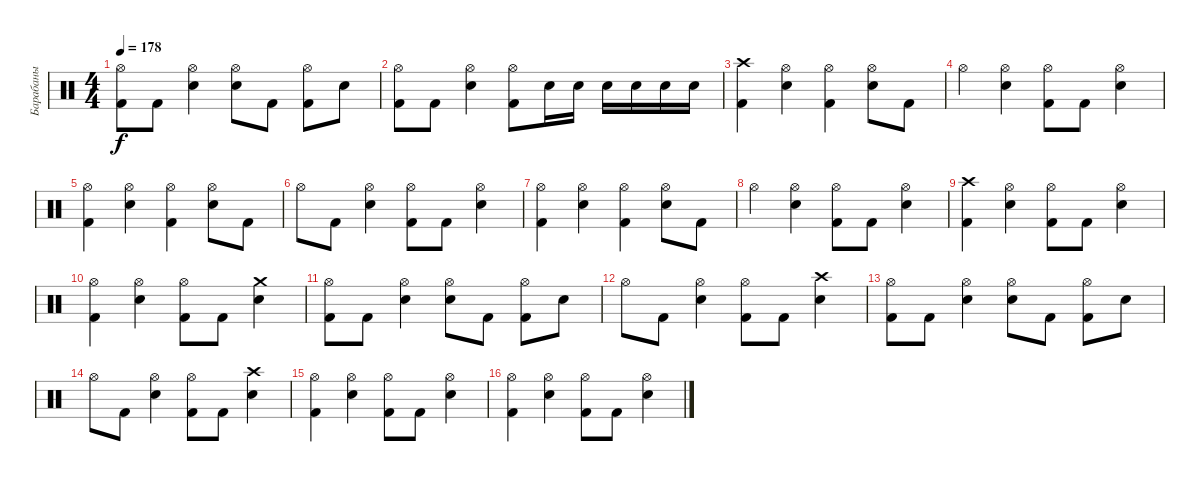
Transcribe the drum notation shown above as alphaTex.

\track ("Барабаны" "Барабаны") {instrument percussion}
\staff {score}
\articulation defaults
\ts (4 4)
\tempo 178
\clef neutral
\ks c
("Hi-Hat (open)" "Kick (hit) 2").8{dy f} "Kick (hit) 2".8 ("Hi-Hat (open)" "Electric Snare (hit)").4 ("Hi-Hat (open)" "Electric Snare (hit)").8 "Kick (hit) 2".8 ("Hi-Hat (open)" "Kick (hit) 2").8 "Electric Snare (hit)".8 |
("Hi-Hat (open)" "Kick (hit) 2").8 "Kick (hit) 2".8 ("Hi-Hat (open)" "Electric Snare (hit)").4 ("Hi-Hat (open)" "Kick (hit) 2").8 "Electric Snare (hit)".16 "Electric Snare (hit)".16 "Electric Snare (hit)".16 "Electric Snare (hit)".16 "Electric Snare (hit)".16 "Electric Snare (hit)".16 |
("Crash high (hit)" "Kick (hit) 2").4 ("Hi-Hat (open)" "Electric Snare (hit)").4 ("Hi-Hat (open)" "Kick (hit) 2").4 ("Hi-Hat (open)" "Electric Snare (hit)").8 "Kick (hit) 2".8 |
"Hi-Hat (open)".4 ("Hi-Hat (open)" "Electric Snare (hit)").4 ("Hi-Hat (open)" "Kick (hit) 2").8 "Kick (hit) 2".8 ("Hi-Hat (open)" "Electric Snare (hit)").4 |
("Hi-Hat (open)" "Kick (hit) 2").4 ("Hi-Hat (open)" "Electric Snare (hit)").4 ("Hi-Hat (open)" "Kick (hit) 2").4 ("Hi-Hat (open)" "Electric Snare (hit)").8 "Kick (hit) 2".8 |
"Hi-Hat (open)".8 "Kick (hit) 2".8 ("Hi-Hat (open)" "Electric Snare (hit)").4 ("Hi-Hat (open)" "Kick (hit) 2").8 "Kick (hit) 2".8 ("Hi-Hat (open)" "Electric Snare (hit)").4 |
("Hi-Hat (open)" "Kick (hit) 2").4 ("Hi-Hat (open)" "Electric Snare (hit)").4 ("Hi-Hat (open)" "Kick (hit) 2").4 ("Hi-Hat (open)" "Electric Snare (hit)").8 "Kick (hit) 2".8 |
"Hi-Hat (open)".4 ("Hi-Hat (open)" "Electric Snare (hit)").4 ("Hi-Hat (open)" "Kick (hit) 2").8 "Kick (hit) 2".8 ("Hi-Hat (open)" "Electric Snare (hit)").4 |
("Crash high (hit)" "Kick (hit) 2").4 ("Hi-Hat (open)" "Electric Snare (hit)").4 ("Hi-Hat (open)" "Kick (hit) 2").8 "Kick (hit) 2".8 ("Hi-Hat (open)" "Electric Snare (hit)").4 |
("Hi-Hat (open)" "Kick (hit) 2").4 ("Hi-Hat (open)" "Electric Snare (hit)").4 ("Hi-Hat (open)" "Kick (hit) 2").8 "Kick (hit) 2".8 ("Crash medium (hit)" "Electric Snare (hit)").4 |
("Hi-Hat (open)" "Kick (hit) 2").8 "Kick (hit) 2".8 ("Hi-Hat (open)" "Electric Snare (hit)").4 ("Hi-Hat (open)" "Electric Snare (hit)").8 "Kick (hit) 2".8 ("Hi-Hat (open)" "Kick (hit) 2").8 "Electric Snare (hit)".8 |
"Hi-Hat (open)".8 "Kick (hit) 2".8 ("Hi-Hat (open)" "Electric Snare (hit)").4 ("Hi-Hat (open)" "Kick (hit) 2").8 "Kick (hit) 2".8 ("Crash high (hit)" "Electric Snare (hit)").4 |
("Hi-Hat (open)" "Kick (hit) 2").8 "Kick (hit) 2".8 ("Hi-Hat (open)" "Electric Snare (hit)").4 ("Hi-Hat (open)" "Electric Snare (hit)").8 "Kick (hit) 2".8 ("Hi-Hat (open)" "Kick (hit) 2").8 "Electric Snare (hit)".8 |
"Hi-Hat (open)".8 "Kick (hit) 2".8 ("Hi-Hat (open)" "Electric Snare (hit)").4 ("Hi-Hat (open)" "Kick (hit) 2").8 "Kick (hit) 2".8 ("Crash high (hit)" "Electric Snare (hit)").4 |
("Hi-Hat (open)" "Kick (hit) 2").4 ("Hi-Hat (open)" "Electric Snare (hit)").4 ("Hi-Hat (open)" "Kick (hit) 2").8 "Kick (hit) 2".8 ("Hi-Hat (open)" "Electric Snare (hit)").4 |
("Hi-Hat (open)" "Kick (hit) 2").4 ("Hi-Hat (open)" "Electric Snare (hit)").4 ("Hi-Hat (open)" "Kick (hit) 2").8 "Kick (hit) 2".8 ("Hi-Hat (open)" "Electric Snare (hit)").4
